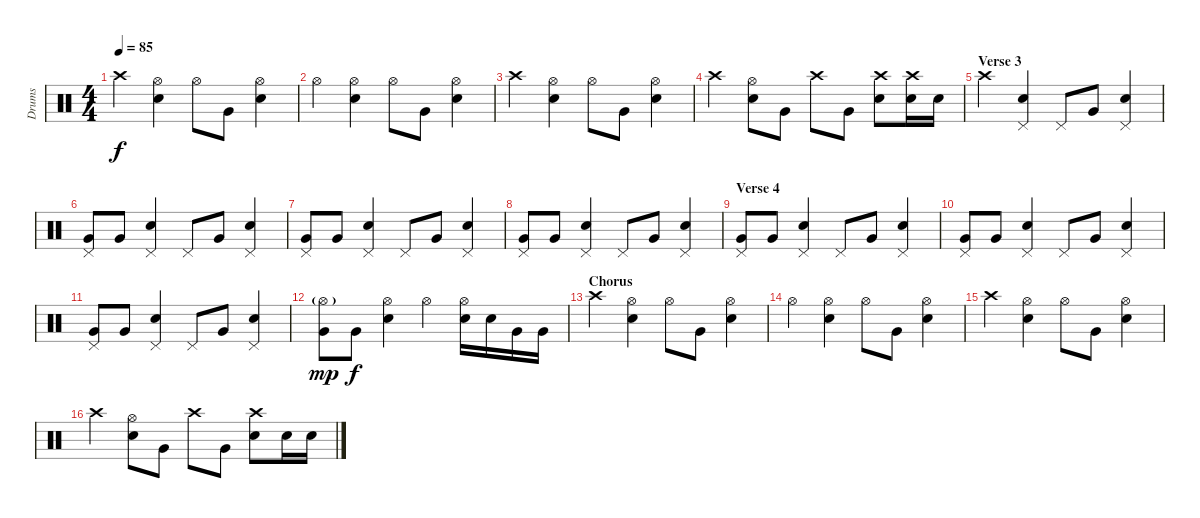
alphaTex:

\track ("Drums" "Drums") {instrument percussion}
\staff {score}
\articulation defaults
\ts (4 4)
\tempo 85
\clef neutral
\ks c "Crash high (hit)".4{dy f}
("Hi-Hat (open)" "Electric Snare (hit)").4 "Hi-Hat (open)".8 "Very Low Tom (hit)".8 ("Hi-Hat (open)" "Electric Snare (hit)").4 |
"Hi-Hat (open)".4 ("Hi-Hat (open)" "Electric Snare (hit)").4 "Hi-Hat (open)".8 "Very Low Tom (hit)".8 ("Hi-Hat (open)" "Electric Snare (hit)").4 |
"Crash high (hit)".4 ("Hi-Hat (open)" "Electric Snare (hit)").4 "Hi-Hat (open)".8 "Very Low Tom (hit)".8 ("Hi-Hat (open)" "Electric Snare (hit)").4 |
"Crash high (hit)".4 ("Hi-Hat (open)" "Electric Snare (hit)").8 "Very Low Tom (hit)".8 "Crash high (hit)".8 "Very Low Tom (hit)".8 ("Crash high (hit)" "Electric Snare (hit)").8 ("Crash high (hit)" "Electric Snare (hit)").16 "Electric Snare (hit)".16 |
\section ("" "Verse 3")
"Crash high (hit)".4 ("Pedal Hi-Hat (hit)" "Electric Snare (hit)").4 "Pedal Hi-Hat (hit)".8 "Very Low Tom (hit)".8 ("Pedal Hi-Hat (hit)" "Electric Snare (hit)").4 |
("Pedal Hi-Hat (hit)" "Very Low Tom (hit)").8 "Very Low Tom (hit)".8 ("Pedal Hi-Hat (hit)" "Electric Snare (hit)").4 "Pedal Hi-Hat (hit)".8 "Very Low Tom (hit)".8 ("Pedal Hi-Hat (hit)" "Electric Snare (hit)").4 |
("Pedal Hi-Hat (hit)" "Very Low Tom (hit)").8 "Very Low Tom (hit)".8 ("Pedal Hi-Hat (hit)" "Electric Snare (hit)").4 "Pedal Hi-Hat (hit)".8 "Very Low Tom (hit)".8 ("Pedal Hi-Hat (hit)" "Electric Snare (hit)").4 |
("Pedal Hi-Hat (hit)" "Very Low Tom (hit)").8 "Very Low Tom (hit)".8 ("Pedal Hi-Hat (hit)" "Electric Snare (hit)").4 "Pedal Hi-Hat (hit)".8 "Very Low Tom (hit)".8 ("Pedal Hi-Hat (hit)" "Electric Snare (hit)").4 |
\section ("" "Verse 4")
("Pedal Hi-Hat (hit)" "Very Low Tom (hit)").8 "Very Low Tom (hit)".8 ("Pedal Hi-Hat (hit)" "Electric Snare (hit)").4 "Pedal Hi-Hat (hit)".8 "Very Low Tom (hit)".8 ("Pedal Hi-Hat (hit)" "Electric Snare (hit)").4 |
("Pedal Hi-Hat (hit)" "Very Low Tom (hit)").8 "Very Low Tom (hit)".8 ("Pedal Hi-Hat (hit)" "Electric Snare (hit)").4 "Pedal Hi-Hat (hit)".8 "Very Low Tom (hit)".8 ("Pedal Hi-Hat (hit)" "Electric Snare (hit)").4 |
("Pedal Hi-Hat (hit)" "Very Low Tom (hit)").8 "Very Low Tom (hit)".8 ("Pedal Hi-Hat (hit)" "Electric Snare (hit)").4 "Pedal Hi-Hat (hit)".8 "Very Low Tom (hit)".8 ("Pedal Hi-Hat (hit)" "Electric Snare (hit)").4 |
("Hi-Hat (open)"{g} "Very Low Tom (hit)").8{dy mp} "Very Low Tom (hit)".8{dy f} ("Hi-Hat (open)" "Electric Snare (hit)").4 "Hi-Hat (open)".4 ("Hi-Hat (open)" "Electric Snare (hit)").16 "Electric Snare (hit)".16 "Very Low Tom (hit)".16 "Very Low Tom (hit)".16 |
\section ("" "Chorus")
"Crash high (hit)".4 ("Hi-Hat (open)" "Electric Snare (hit)").4 "Hi-Hat (open)".8 "Very Low Tom (hit)".8 ("Hi-Hat (open)" "Electric Snare (hit)").4 |
"Hi-Hat (open)".4 ("Hi-Hat (open)" "Electric Snare (hit)").4 "Hi-Hat (open)".8 "Very Low Tom (hit)".8 ("Hi-Hat (open)" "Electric Snare (hit)").4 |
"Crash high (hit)".4 ("Hi-Hat (open)" "Electric Snare (hit)").4 "Hi-Hat (open)".8 "Very Low Tom (hit)".8 ("Hi-Hat (open)" "Electric Snare (hit)").4 |
"Crash high (hit)".4 ("Hi-Hat (open)" "Electric Snare (hit)").8 "Very Low Tom (hit)".8 "Crash high (hit)".8 "Very Low Tom (hit)".8 ("Crash high (hit)" "Electric Snare (hit)").8 "Electric Snare (hit)".16 "Electric Snare (hit)".16
